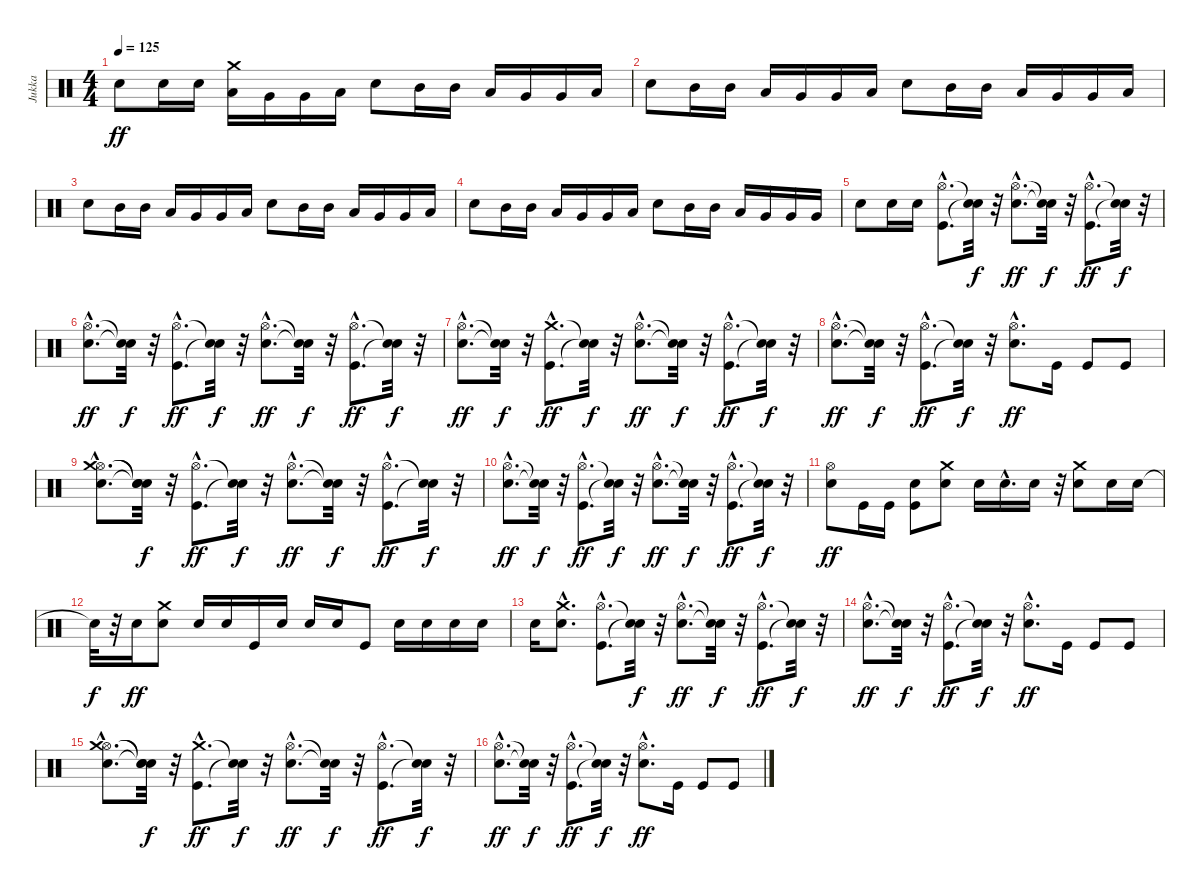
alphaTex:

\track ("Jukka" "Jukka") {instrument percussion}
\staff {score}
\articulation defaults
\ts (4 4)
\tempo 125
\clef neutral
\ks c "Electric Snare (hit)".8{dy ff} "Electric Snare (hit)".16 "Electric Snare (hit)".16
("Low Tom (hit)" "Crash medium (hit)").16 "Very Low Tom (hit)".16 "Very Low Tom (hit)".16 "Low Floor Tom (hit)".16 "Electric Snare (hit)".8 "Mid Tom (hit)".16 "Mid Tom (hit)".16 "Low Tom (hit)".16 "Very Low Tom (hit)".16 "Very Low Tom (hit)".16 "Low Floor Tom (hit)".16 |
"Electric Snare (hit)".8 "Mid Tom (hit)".16 "Mid Tom (hit)".16 "Low Tom (hit)".16 "Very Low Tom (hit)".16 "Very Low Tom (hit)".16 "Low Floor Tom (hit)".16 "Electric Snare (hit)".8 "Mid Tom (hit)".16 "Mid Tom (hit)".16 "Low Tom (hit)".16 "Very Low Tom (hit)".16 "Very Low Tom (hit)".16 "Low Floor Tom (hit)".16 |
"Electric Snare (hit)".8 "Mid Tom (hit)".16 "Mid Tom (hit)".16 "Low Tom (hit)".16 "Very Low Tom (hit)".16 "Very Low Tom (hit)".16 "Low Floor Tom (hit)".16 "Electric Snare (hit)".8 "Mid Tom (hit)".16 "Mid Tom (hit)".16 "Low Tom (hit)".16 "Very Low Tom (hit)".16 "Very Low Tom (hit)".16 "Low Floor Tom (hit)".16 |
"Electric Snare (hit)".8 "Mid Tom (hit)".16 "Mid Tom (hit)".16 "Low Tom (hit)".16 "Very Low Tom (hit)".16 "Very Low Tom (hit)".16 "Low Floor Tom (hit)".16 "Electric Snare (hit)".8 "Mid Tom (hit)".16 "Mid Tom (hit)".16 "Low Tom (hit)".16 "Very Low Tom (hit)".16 "Very Low Tom (hit)".16 "Very Low Tom (hit)".16 |
"Electric Snare (hit)".8 "Electric Snare (hit)".16 "Electric Snare (hit)".16 ("Kick (hit)"{hac} "Hi-Hat (open)"{hac}).8{d} ("Snare (hit)"{t} "Snare (hit)"{t}).32{dy f} r.32 ("Electric Snare (hit)"{hac} "Hi-Hat (open)"{hac}).8{d dy ff} ("Snare (hit)"{t} "Snare (hit)"{t}).32{dy f} r.32 ("Kick (hit)"{hac} "Hi-Hat (open)"{hac}).8{d dy ff} ("Snare (hit)"{t} "Snare (hit)"{t}).32{dy f} r.32 |
("Electric Snare (hit)"{hac} "Hi-Hat (open)"{hac}).8{d dy ff} ("Snare (hit)"{t} "Snare (hit)"{t}).32{dy f} r.32 ("Kick (hit)"{hac} "Hi-Hat (open)"{hac}).8{d dy ff} ("Snare (hit)"{t} "Snare (hit)"{t}).32{dy f} r.32 ("Electric Snare (hit)"{hac} "Hi-Hat (open)"{hac}).8{d dy ff} ("Snare (hit)"{t} "Snare (hit)"{t}).32{dy f} r.32 ("Kick (hit)"{hac} "Hi-Hat (open)"{hac}).8{d dy ff} ("Snare (hit)"{t} "Snare (hit)"{t}).32{dy f} r.32 |
("Electric Snare (hit)"{hac} "Hi-Hat (open)"{hac}).8{d dy ff} ("Snare (hit)"{t} "Snare (hit)"{t}).32{dy f} r.32 ("Kick (hit)"{hac} "Crash medium (hit)"{hac}).8{d dy ff} ("Snare (hit)"{t} "Snare (hit)"{t}).32{dy f} r.32 ("Electric Snare (hit)"{hac} "Hi-Hat (open)"{hac}).8{d dy ff} ("Snare (hit)"{t} "Snare (hit)"{t}).32{dy f} r.32 ("Kick (hit)"{hac} "Hi-Hat (open)"{hac}).8{d dy ff} ("Snare (hit)"{t} "Snare (hit)"{t}).32{dy f} r.32 |
("Electric Snare (hit)"{hac} "Hi-Hat (open)"{hac}).8{d dy ff} ("Snare (hit)"{t} "Snare (hit)"{t}).32{dy f} r.32 ("Kick (hit)"{hac} "Hi-Hat (open)"{hac}).8{d dy ff} ("Snare (hit)"{t} "Snare (hit)"{t}).32{dy f} r.32 ("Electric Snare (hit)"{hac} "Hi-Hat (open)"{hac}).8{d dy ff} "Kick (hit)".16 "Kick (hit)".8 "Kick (hit)".8 |
("Electric Snare (hit)"{hac} "Hi-Hat (open)"{hac} "Crash medium (hit)"{hac}).8{d} ("Snare (hit)"{t} "Snare (hit)"{t} "Snare (hit)"{t}).32{dy f} r.32 ("Kick (hit)"{hac} "Hi-Hat (open)"{hac}).8{d dy ff} ("Snare (hit)"{t} "Snare (hit)"{t}).32{dy f} r.32 ("Electric Snare (hit)"{hac} "Hi-Hat (open)"{hac}).8{d dy ff} ("Snare (hit)"{t} "Snare (hit)"{t}).32{dy f} r.32 ("Kick (hit)"{hac} "Hi-Hat (open)"{hac}).8{d dy ff} ("Snare (hit)"{t} "Snare (hit)"{t}).32{dy f} r.32 |
("Electric Snare (hit)"{hac} "Hi-Hat (open)"{hac}).8{d dy ff} ("Snare (hit)"{t} "Snare (hit)"{t}).32{dy f} r.32 ("Kick (hit)"{hac} "Hi-Hat (open)"{hac}).8{d dy ff} ("Snare (hit)"{t} "Snare (hit)"{t}).32{dy f} r.32 ("Electric Snare (hit)"{hac} "Hi-Hat (open)"{hac}).8{d dy ff} ("Snare (hit)"{t} "Snare (hit)"{t}).32{dy f} r.32 ("Kick (hit)"{hac} "Hi-Hat (open)"{hac}).8{d dy ff} ("Snare (hit)"{t} "Snare (hit)"{t}).32{dy f} r.32 |
("Electric Snare (hit)" "Hi-Hat (open)").8{dy ff} "Kick (hit)".16 "Kick (hit)".16 ("Kick (hit)" "Electric Snare (hit)").8 ("Electric Snare (hit)" "Crash medium (hit)").8 "Electric Snare (hit)".16 "Electric Snare (hit)"{hac}.16{d} "Electric Snare (hit)".16 r.32 ("Electric Snare (hit)" "Crash medium (hit)").8 "Electric Snare (hit)".16 "Electric Snare (hit)".16 |
"Snare (hit)"{t}.32{dy f} r.32 "Electric Snare (hit)".16{dy ff} ("Electric Snare (hit)" "Crash medium (hit)").8 "Electric Snare (hit)".16 "Electric Snare (hit)".16 "Kick (hit)".16 "Electric Snare (hit)".16 "Electric Snare (hit)".16 "Electric Snare (hit)".16 "Kick (hit)".8 "Electric Snare (hit)".16 "Electric Snare (hit)".16 "Electric Snare (hit)".16 "Electric Snare (hit)".16 |
"Electric Snare (hit)".16 ("Electric Snare (hit)"{hac} "Crash medium (hit)"{hac}).8{d} ("Kick (hit)"{hac} "Hi-Hat (open)"{hac}).8{d} ("Snare (hit)"{t} "Snare (hit)"{t}).32{dy f} r.32 ("Electric Snare (hit)"{hac} "Hi-Hat (open)"{hac}).8{d dy ff} ("Snare (hit)"{t} "Snare (hit)"{t}).32{dy f} r.32 ("Kick (hit)"{hac} "Hi-Hat (open)"{hac}).8{d dy ff} ("Snare (hit)"{t} "Snare (hit)"{t}).32{dy f} r.32 |
("Electric Snare (hit)"{hac} "Hi-Hat (open)"{hac}).8{d dy ff} ("Snare (hit)"{t} "Snare (hit)"{t}).32{dy f} r.32 ("Kick (hit)"{hac} "Hi-Hat (open)"{hac}).8{d dy ff} ("Snare (hit)"{t} "Snare (hit)"{t}).32{dy f} r.32 ("Electric Snare (hit)"{hac} "Hi-Hat (open)"{hac}).8{d dy ff} "Kick (hit)".16 "Kick (hit)".8 "Kick (hit)".8 |
("Electric Snare (hit)"{hac} "Hi-Hat (open)"{hac} "Crash medium (hit)"{hac}).8{d} ("Snare (hit)"{t} "Snare (hit)"{t} "Snare (hit)"{t}).32{dy f} r.32 ("Kick (hit)"{hac} "Crash medium (hit)"{hac}).8{d dy ff} ("Snare (hit)"{t} "Snare (hit)"{t}).32{dy f} r.32 ("Electric Snare (hit)"{hac} "Hi-Hat (open)"{hac}).8{d dy ff} ("Snare (hit)"{t} "Snare (hit)"{t}).32{dy f} r.32 ("Kick (hit)"{hac} "Hi-Hat (open)"{hac}).8{d dy ff} ("Snare (hit)"{t} "Snare (hit)"{t}).32{dy f} r.32 |
("Electric Snare (hit)"{hac} "Hi-Hat (open)"{hac}).8{d dy ff} ("Snare (hit)"{t} "Snare (hit)"{t}).32{dy f} r.32 ("Kick (hit)"{hac} "Hi-Hat (open)"{hac}).8{d dy ff} ("Snare (hit)"{t} "Snare (hit)"{t}).32{dy f} r.32 ("Electric Snare (hit)"{hac} "Hi-Hat (open)"{hac}).8{d dy ff} "Kick (hit)".16 "Kick (hit)".8 "Kick (hit)".8
